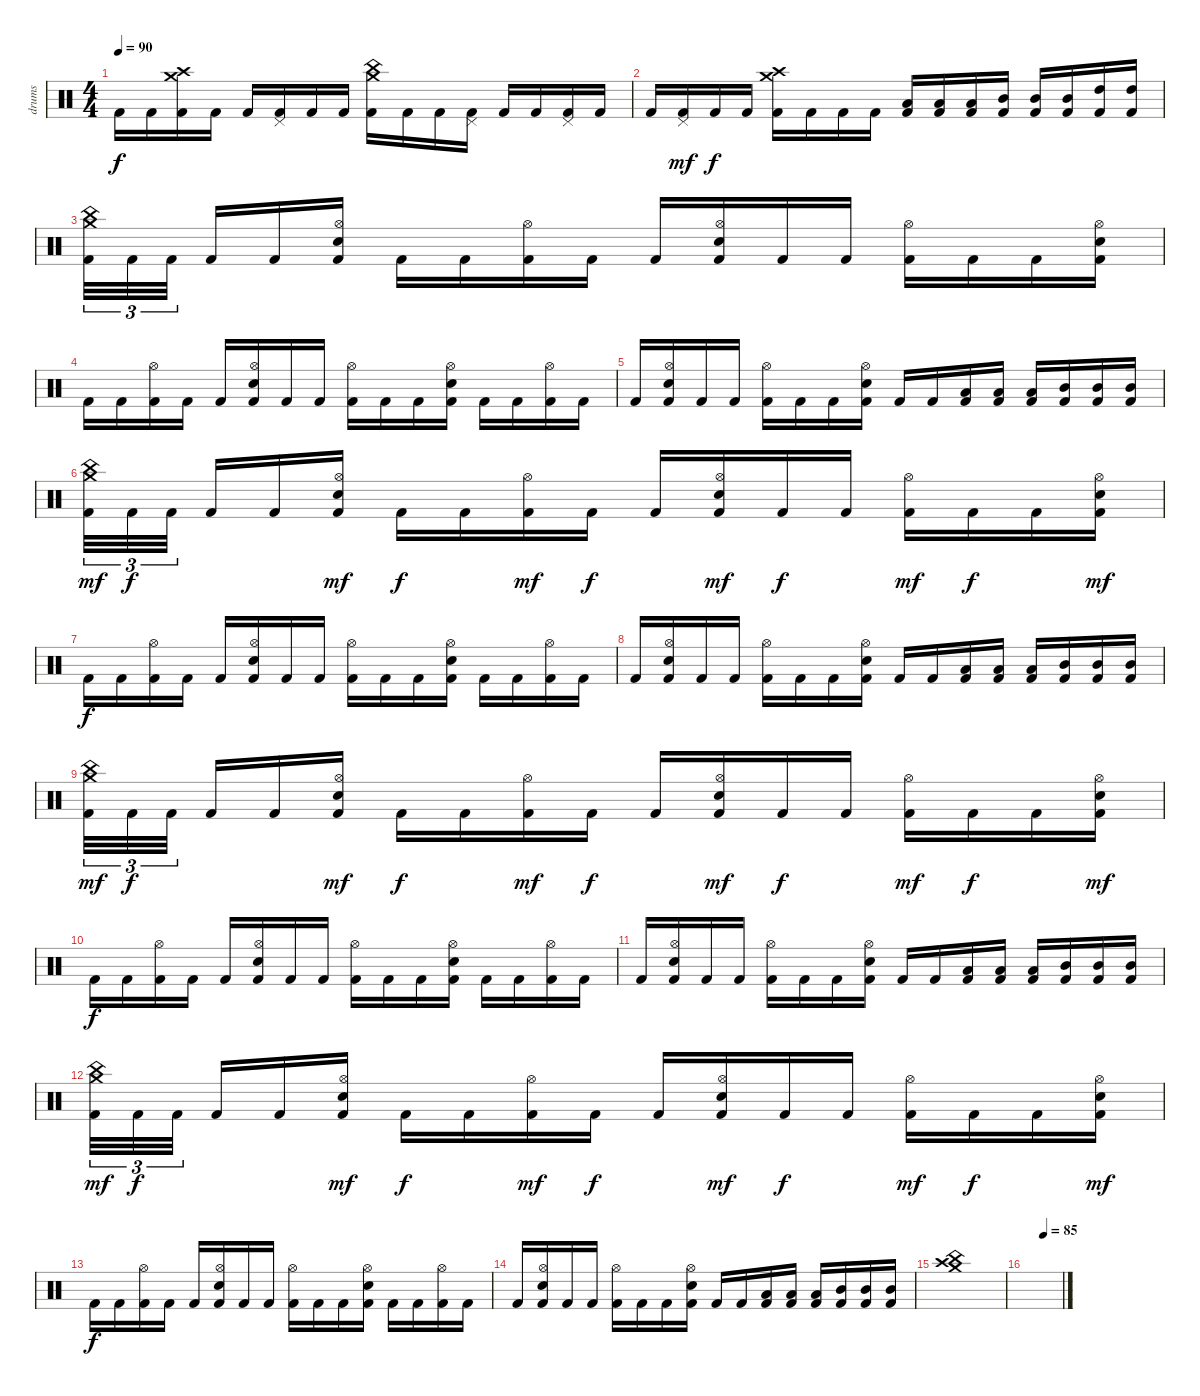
\track ("drums" "drums") {instrument percussion}
\staff {score}
\articulation defaults
\ts (4 4)
\tempo 90
\clef neutral
\ks c "Kick (hit) 2".16{dy f} "Kick (hit) 2".16
("Crash medium (hit)" "Crash high (hit)" "Kick (hit) 2").16 "Kick (hit) 2".16 "Kick (hit) 2".16 ("Pedal Hi-Hat (hit)" "Kick (hit) 2").16 "Kick (hit) 2".16 "Kick (hit) 2".16 ("China (hit)" "Crash medium (hit)" "Kick (hit) 2").16 "Kick (hit) 2".16 "Kick (hit) 2".16 ("Pedal Hi-Hat (hit)" "Kick (hit) 2").16 "Kick (hit) 2".16 "Kick (hit) 2".16 ("Pedal Hi-Hat (hit)" "Kick (hit) 2").16 "Kick (hit) 2".16 |
"Kick (hit) 2".16 ("Pedal Hi-Hat (hit)" "Kick (hit) 2").16{dy mf} "Kick (hit) 2".16{dy f} "Kick (hit) 2".16 ("Crash medium (hit)" "Crash high (hit)" "Kick (hit) 2").16 "Kick (hit) 2".16 "Kick (hit) 2".16 "Kick (hit) 2".16 ("Low Tom (hit)" "Kick (hit) 2").16 ("Low Tom (hit)" "Kick (hit) 2").16 ("Low Tom (hit)" "Kick (hit) 2").16 ("Mid Tom (hit)" "Kick (hit) 2").16 ("Mid Tom (hit)" "Kick (hit) 2").16 ("Mid Tom (hit)" "Kick (hit) 2").16 ("High Tom (hit)" "Kick (hit) 2").16 ("High Tom (hit)" "Kick (hit) 2").16 |
("China (hit)" "Crash medium (hit)" "Kick (hit) 2").32{tu (3 2)} "Kick (hit) 2".32{tu (3 2)} "Kick (hit) 2".32{tu (3 2) beam splitsecondary} "Kick (hit) 2".16 "Kick (hit) 2".16 ("Hi-Hat (open)" "Snare (hit) 2" "Kick (hit) 2").16 "Kick (hit) 2".16 "Kick (hit) 2".16 ("Hi-Hat (open)" "Kick (hit) 2").16 "Kick (hit) 2".16 "Kick (hit) 2".16 ("Hi-Hat (open)" "Snare (hit) 2" "Kick (hit) 2").16 "Kick (hit) 2".16 "Kick (hit) 2".16 ("Hi-Hat (open)" "Kick (hit) 2").16 "Kick (hit) 2".16 "Kick (hit) 2".16 ("Hi-Hat (open)" "Snare (hit) 2" "Kick (hit) 2").16 |
"Kick (hit) 2".16 "Kick (hit) 2".16 ("Hi-Hat (open)" "Kick (hit) 2").16 "Kick (hit) 2".16 "Kick (hit) 2".16 ("Hi-Hat (open)" "Snare (hit) 2" "Kick (hit) 2").16 "Kick (hit) 2".16 "Kick (hit) 2".16 ("Hi-Hat (open)" "Kick (hit) 2").16 "Kick (hit) 2".16 "Kick (hit) 2".16 ("Hi-Hat (open)" "Snare (hit) 2" "Kick (hit) 2").16 "Kick (hit) 2".16 "Kick (hit) 2".16 ("Hi-Hat (open)" "Kick (hit) 2").16 "Kick (hit) 2".16 |
"Kick (hit) 2".16 ("Hi-Hat (open)" "Snare (hit) 2" "Kick (hit) 2").16 "Kick (hit) 2".16 "Kick (hit) 2".16 ("Hi-Hat (open)" "Kick (hit) 2").16 "Kick (hit) 2".16 "Kick (hit) 2".16 ("Hi-Hat (open)" "Snare (hit) 2" "Kick (hit) 2").16 "Kick (hit) 2".16 "Kick (hit) 2".16 ("Low Tom (hit)" "Kick (hit) 2").16 ("Low Tom (hit)" "Kick (hit) 2").16 ("Low Tom (hit)" "Kick (hit) 2").16 ("Mid Tom (hit)" "Kick (hit) 2").16 ("Mid Tom (hit)" "Kick (hit) 2").16 ("Mid Tom (hit)" "Kick (hit) 2").16 |
("China (hit)" "Crash medium (hit)" "Kick (hit) 2").32{tu (3 2) dy mf} "Kick (hit) 2".32{tu (3 2) dy f} "Kick (hit) 2".32{tu (3 2) beam splitsecondary} "Kick (hit) 2".16 "Kick (hit) 2".16 ("Hi-Hat (open)" "Snare (hit) 2" "Kick (hit) 2").16{dy mf} "Kick (hit) 2".16{dy f} "Kick (hit) 2".16 ("Hi-Hat (open)" "Kick (hit) 2").16{dy mf} "Kick (hit) 2".16{dy f} "Kick (hit) 2".16 ("Hi-Hat (open)" "Snare (hit) 2" "Kick (hit) 2").16{dy mf} "Kick (hit) 2".16{dy f} "Kick (hit) 2".16 ("Hi-Hat (open)" "Kick (hit) 2").16{dy mf} "Kick (hit) 2".16{dy f} "Kick (hit) 2".16 ("Hi-Hat (open)" "Snare (hit) 2" "Kick (hit) 2").16{dy mf} |
"Kick (hit) 2".16{dy f} "Kick (hit) 2".16 ("Hi-Hat (open)" "Kick (hit) 2").16 "Kick (hit) 2".16 "Kick (hit) 2".16 ("Hi-Hat (open)" "Snare (hit) 2" "Kick (hit) 2").16 "Kick (hit) 2".16 "Kick (hit) 2".16 ("Hi-Hat (open)" "Kick (hit) 2").16 "Kick (hit) 2".16 "Kick (hit) 2".16 ("Hi-Hat (open)" "Snare (hit) 2" "Kick (hit) 2").16 "Kick (hit) 2".16 "Kick (hit) 2".16 ("Hi-Hat (open)" "Kick (hit) 2").16 "Kick (hit) 2".16 |
"Kick (hit) 2".16 ("Hi-Hat (open)" "Snare (hit) 2" "Kick (hit) 2").16 "Kick (hit) 2".16 "Kick (hit) 2".16 ("Hi-Hat (open)" "Kick (hit) 2").16 "Kick (hit) 2".16 "Kick (hit) 2".16 ("Hi-Hat (open)" "Snare (hit) 2" "Kick (hit) 2").16 "Kick (hit) 2".16 "Kick (hit) 2".16 ("Low Tom (hit)" "Kick (hit) 2").16 ("Low Tom (hit)" "Kick (hit) 2").16 ("Low Tom (hit)" "Kick (hit) 2").16 ("Mid Tom (hit)" "Kick (hit) 2").16 ("Mid Tom (hit)" "Kick (hit) 2").16 ("Mid Tom (hit)" "Kick (hit) 2").16 |
("China (hit)" "Crash medium (hit)" "Kick (hit) 2").32{tu (3 2) dy mf} "Kick (hit) 2".32{tu (3 2) dy f} "Kick (hit) 2".32{tu (3 2) beam splitsecondary} "Kick (hit) 2".16 "Kick (hit) 2".16 ("Hi-Hat (open)" "Snare (hit) 2" "Kick (hit) 2").16{dy mf} "Kick (hit) 2".16{dy f} "Kick (hit) 2".16 ("Hi-Hat (open)" "Kick (hit) 2").16{dy mf} "Kick (hit) 2".16{dy f} "Kick (hit) 2".16 ("Hi-Hat (open)" "Snare (hit) 2" "Kick (hit) 2").16{dy mf} "Kick (hit) 2".16{dy f} "Kick (hit) 2".16 ("Hi-Hat (open)" "Kick (hit) 2").16{dy mf} "Kick (hit) 2".16{dy f} "Kick (hit) 2".16 ("Hi-Hat (open)" "Snare (hit) 2" "Kick (hit) 2").16{dy mf} |
"Kick (hit) 2".16{dy f} "Kick (hit) 2".16 ("Hi-Hat (open)" "Kick (hit) 2").16 "Kick (hit) 2".16 "Kick (hit) 2".16 ("Hi-Hat (open)" "Snare (hit) 2" "Kick (hit) 2").16 "Kick (hit) 2".16 "Kick (hit) 2".16 ("Hi-Hat (open)" "Kick (hit) 2").16 "Kick (hit) 2".16 "Kick (hit) 2".16 ("Hi-Hat (open)" "Snare (hit) 2" "Kick (hit) 2").16 "Kick (hit) 2".16 "Kick (hit) 2".16 ("Hi-Hat (open)" "Kick (hit) 2").16 "Kick (hit) 2".16 |
"Kick (hit) 2".16 ("Hi-Hat (open)" "Snare (hit) 2" "Kick (hit) 2").16 "Kick (hit) 2".16 "Kick (hit) 2".16 ("Hi-Hat (open)" "Kick (hit) 2").16 "Kick (hit) 2".16 "Kick (hit) 2".16 ("Hi-Hat (open)" "Snare (hit) 2" "Kick (hit) 2").16 "Kick (hit) 2".16 "Kick (hit) 2".16 ("Low Tom (hit)" "Kick (hit) 2").16 ("Low Tom (hit)" "Kick (hit) 2").16 ("Low Tom (hit)" "Kick (hit) 2").16 ("Mid Tom (hit)" "Kick (hit) 2").16 ("Mid Tom (hit)" "Kick (hit) 2").16 ("Mid Tom (hit)" "Kick (hit) 2").16 |
("China (hit)" "Crash medium (hit)" "Kick (hit) 2").32{tu (3 2) dy mf} "Kick (hit) 2".32{tu (3 2) dy f} "Kick (hit) 2".32{tu (3 2) beam splitsecondary} "Kick (hit) 2".16 "Kick (hit) 2".16 ("Hi-Hat (open)" "Snare (hit) 2" "Kick (hit) 2").16{dy mf} "Kick (hit) 2".16{dy f} "Kick (hit) 2".16 ("Hi-Hat (open)" "Kick (hit) 2").16{dy mf} "Kick (hit) 2".16{dy f} "Kick (hit) 2".16 ("Hi-Hat (open)" "Snare (hit) 2" "Kick (hit) 2").16{dy mf} "Kick (hit) 2".16{dy f} "Kick (hit) 2".16 ("Hi-Hat (open)" "Kick (hit) 2").16{dy mf} "Kick (hit) 2".16{dy f} "Kick (hit) 2".16 ("Hi-Hat (open)" "Snare (hit) 2" "Kick (hit) 2").16{dy mf} |
"Kick (hit) 2".16{dy f} "Kick (hit) 2".16 ("Hi-Hat (open)" "Kick (hit) 2").16 "Kick (hit) 2".16 "Kick (hit) 2".16 ("Hi-Hat (open)" "Snare (hit) 2" "Kick (hit) 2").16 "Kick (hit) 2".16 "Kick (hit) 2".16 ("Hi-Hat (open)" "Kick (hit) 2").16 "Kick (hit) 2".16 "Kick (hit) 2".16 ("Hi-Hat (open)" "Snare (hit) 2" "Kick (hit) 2").16 "Kick (hit) 2".16 "Kick (hit) 2".16 ("Hi-Hat (open)" "Kick (hit) 2").16 "Kick (hit) 2".16 |
"Kick (hit) 2".16 ("Hi-Hat (open)" "Snare (hit) 2" "Kick (hit) 2").16 "Kick (hit) 2".16 "Kick (hit) 2".16 ("Hi-Hat (open)" "Kick (hit) 2").16 "Kick (hit) 2".16 "Kick (hit) 2".16 ("Hi-Hat (open)" "Snare (hit) 2" "Kick (hit) 2").16 "Kick (hit) 2".16 "Kick (hit) 2".16 ("Low Tom (hit)" "Kick (hit) 2").16 ("Low Tom (hit)" "Kick (hit) 2").16 ("Low Tom (hit)" "Kick (hit) 2").16 ("Mid Tom (hit)" "Kick (hit) 2").16 ("Mid Tom (hit)" "Kick (hit) 2").16 ("Mid Tom (hit)" "Kick (hit) 2").16 |
("Crash medium (hit)" "Crash high (hit)" "China (hit)").1 |
\tempo (85 0.5)
